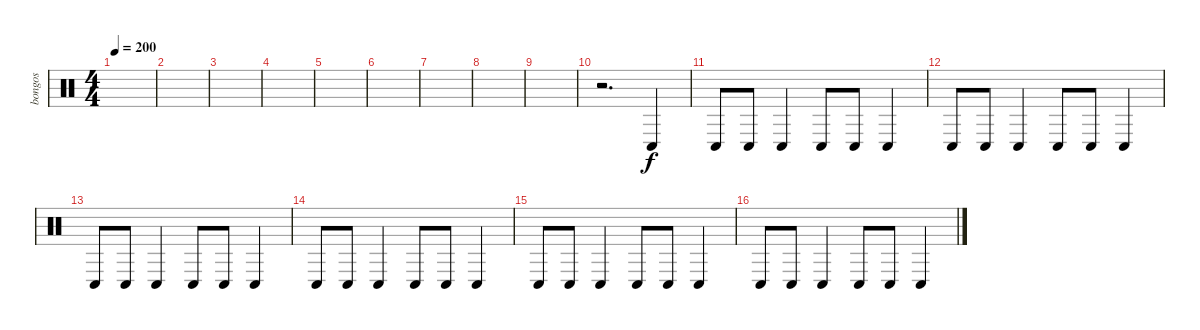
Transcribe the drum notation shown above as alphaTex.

\track ("bongos" "bongos") {instrument percussion}
\staff {score}
\articulation defaults
\ts (4 4)
\tempo 200
\clef neutral
\ks c
|
|
|
|
|
|
|
|
|
r.2{d} "Conga low (hit)".4 |
"Conga low (hit)".8 "Conga low (hit)".8 "Conga low (hit)".4 "Conga low (hit)".8 "Conga low (hit)".8 "Conga low (hit)".4 |
"Conga low (hit)".8 "Conga low (hit)".8 "Conga low (hit)".4 "Conga low (hit)".8 "Conga low (hit)".8 "Conga low (hit)".4 |
"Conga low (hit)".8 "Conga low (hit)".8 "Conga low (hit)".4 "Conga low (hit)".8 "Conga low (hit)".8 "Conga low (hit)".4 |
"Conga low (hit)".8 "Conga low (hit)".8 "Conga low (hit)".4 "Conga low (hit)".8 "Conga low (hit)".8 "Conga low (hit)".4 |
"Conga low (hit)".8 "Conga low (hit)".8 "Conga low (hit)".4 "Conga low (hit)".8 "Conga low (hit)".8 "Conga low (hit)".4 |
"Conga low (hit)".8 "Conga low (hit)".8 "Conga low (hit)".4 "Conga low (hit)".8 "Conga low (hit)".8 "Conga low (hit)".4
